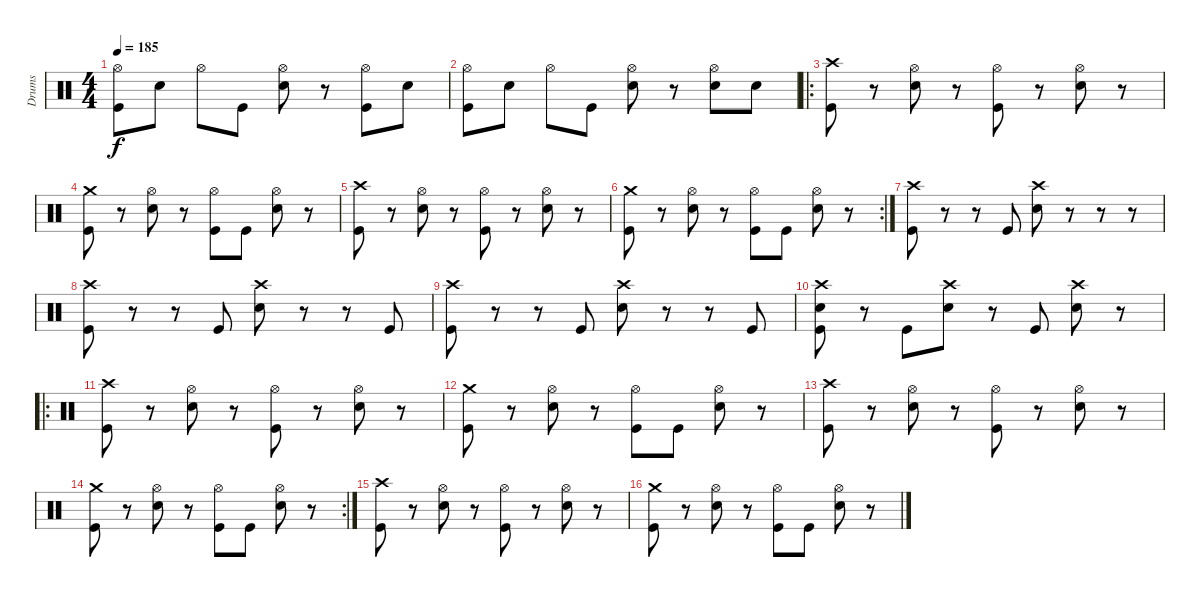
\track ("Drums" "Drums") {instrument percussion}
\staff {score}
\articulation defaults
\ts (4 4)
\tempo 185
\clef neutral
\ks c
("Hi-Hat (open)" "Kick (hit)").8{dy f} "Snare (hit) 2".8 "Hi-Hat (open)".8 "Kick (hit)".8 ("Hi-Hat (open)" "Snare (hit) 2").8 r.8 ("Hi-Hat (open)" "Kick (hit)").8 "Snare (hit) 2".8 |
("Hi-Hat (open)" "Kick (hit)").8 "Snare (hit) 2".8 "Hi-Hat (open)".8 "Kick (hit)".8 ("Hi-Hat (open)" "Snare (hit) 2").8 r.8 ("Hi-Hat (open)" "Snare (hit) 2").8 "Snare (hit) 2".8 |
\ro
("Crash high (hit)" "Kick (hit)").8 r.8 ("Hi-Hat (open)" "Snare (hit) 2").8 r.8 ("Hi-Hat (open)" "Kick (hit)").8 r.8 ("Hi-Hat (open)" "Snare (hit) 2").8 r.8 |
("Crash medium (hit)" "Kick (hit)").8 r.8 ("Hi-Hat (open)" "Snare (hit) 2").8 r.8 ("Hi-Hat (open)" "Kick (hit)").8 "Kick (hit)".8 ("Hi-Hat (open)" "Snare (hit) 2").8 r.8 |
("Crash high (hit)" "Kick (hit)").8 r.8 ("Hi-Hat (open)" "Snare (hit) 2").8 r.8 ("Hi-Hat (open)" "Kick (hit)").8 r.8 ("Hi-Hat (open)" "Snare (hit) 2").8 r.8 |
\rc 2
("Crash medium (hit)" "Kick (hit)").8 r.8 ("Hi-Hat (open)" "Snare (hit) 2").8 r.8 ("Hi-Hat (open)" "Kick (hit)").8 "Kick (hit)".8 ("Hi-Hat (open)" "Snare (hit) 2").8 r.8 |
("Crash high (hit)" "Kick (hit)").8 r.8 r.8 "Kick (hit)".8 ("Crash high (hit)" "Snare (hit) 2").8 r.8 r.8 r.8 |
("Crash high (hit)" "Kick (hit)").8 r.8 r.8 "Kick (hit)".8 ("Crash high (hit)" "Snare (hit) 2").8 r.8 r.8 "Kick (hit)".8 |
("Crash high (hit)" "Kick (hit)").8 r.8 r.8 "Kick (hit)".8 ("Crash high (hit)" "Snare (hit) 2").8 r.8 r.8 "Kick (hit)".8 |
("Crash high (hit)" "Snare (hit) 2" "Kick (hit)").8 r.8 "Kick (hit)".8 ("Crash high (hit)" "Snare (hit) 2").8 r.8 "Kick (hit)".8 ("Crash high (hit)" "Snare (hit) 2").8 r.8 |
\ro
("Crash high (hit)" "Kick (hit)").8 r.8 ("Hi-Hat (open)" "Snare (hit) 2").8 r.8 ("Hi-Hat (open)" "Kick (hit)").8 r.8 ("Hi-Hat (open)" "Snare (hit) 2").8 r.8 |
("Crash medium (hit)" "Kick (hit)").8 r.8 ("Hi-Hat (open)" "Snare (hit) 2").8 r.8 ("Hi-Hat (open)" "Kick (hit)").8 "Kick (hit)".8 ("Hi-Hat (open)" "Snare (hit) 2").8 r.8 |
("Crash high (hit)" "Kick (hit)").8 r.8 ("Hi-Hat (open)" "Snare (hit) 2").8 r.8 ("Hi-Hat (open)" "Kick (hit)").8 r.8 ("Hi-Hat (open)" "Snare (hit) 2").8 r.8 |
\rc 2
("Crash medium (hit)" "Kick (hit)").8 r.8 ("Hi-Hat (open)" "Snare (hit) 2").8 r.8 ("Hi-Hat (open)" "Kick (hit)").8 "Kick (hit)".8 ("Hi-Hat (open)" "Snare (hit) 2").8 r.8 |
("Crash high (hit)" "Kick (hit)").8 r.8 ("Hi-Hat (open)" "Snare (hit) 2").8 r.8 ("Hi-Hat (open)" "Kick (hit)").8 r.8 ("Hi-Hat (open)" "Snare (hit) 2").8 r.8 |
("Crash medium (hit)" "Kick (hit)").8 r.8 ("Hi-Hat (open)" "Snare (hit) 2").8 r.8 ("Hi-Hat (open)" "Kick (hit)").8 "Kick (hit)".8 ("Hi-Hat (open)" "Snare (hit) 2").8 r.8
